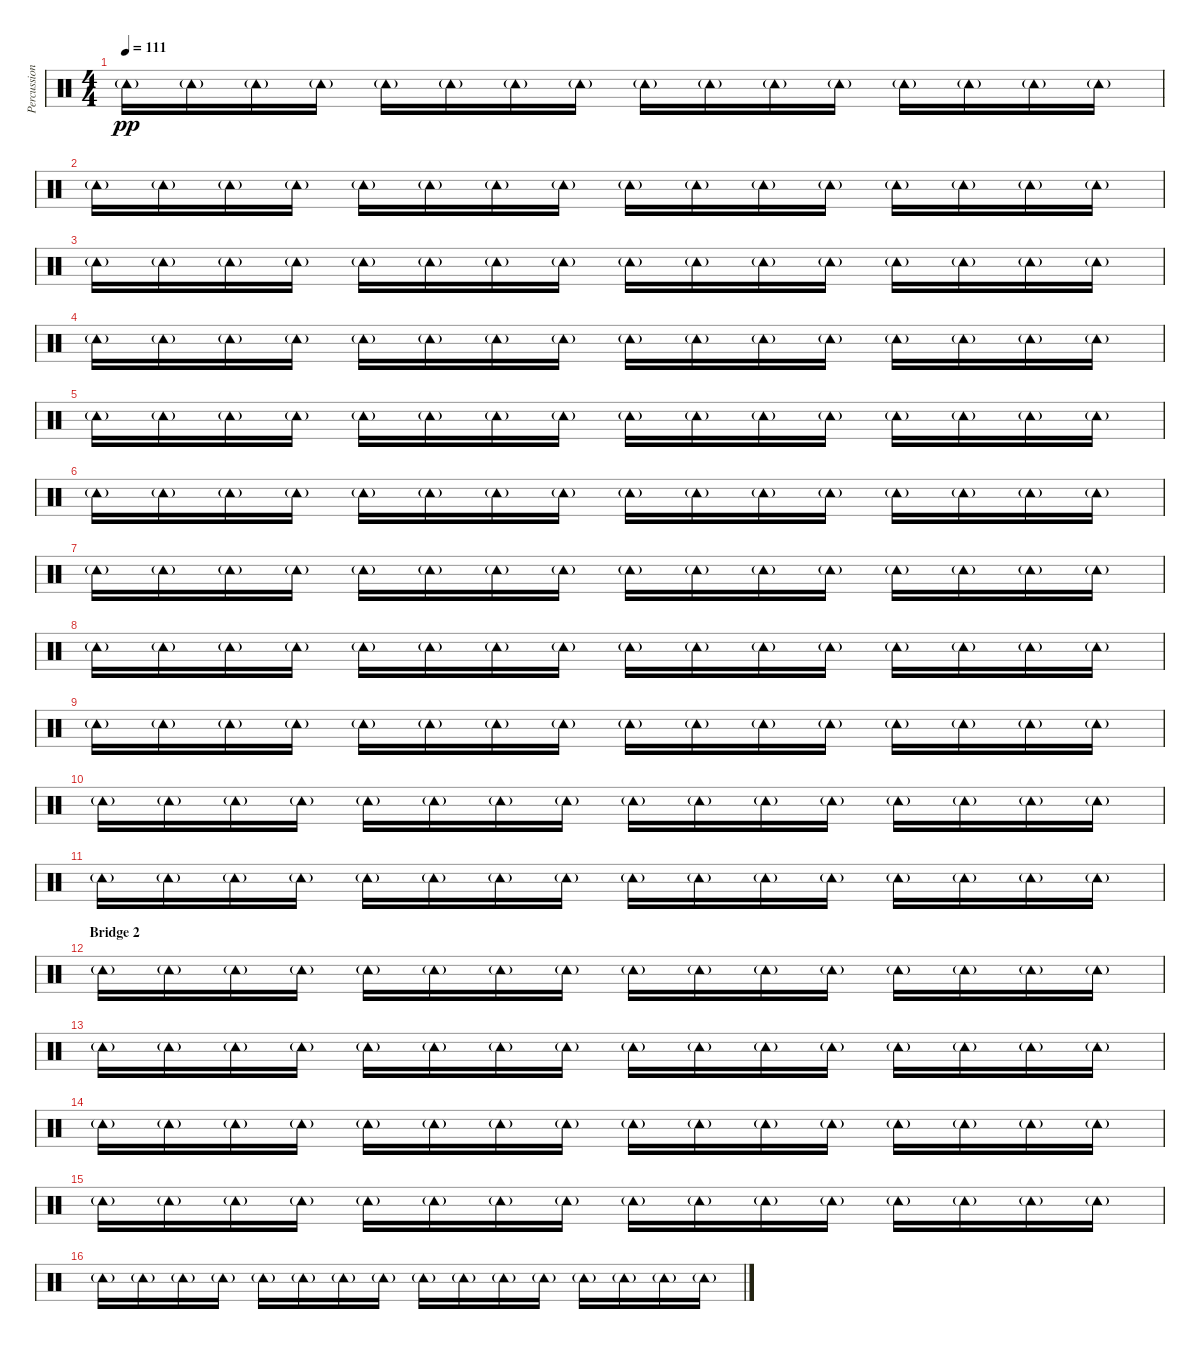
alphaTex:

\track ("Percussion" "Percussion") {instrument percussion}
\staff {score}
\articulation defaults
\ts (4 4)
\tempo 111
\clef neutral
\ks c "Tambourine (hit)"{g}.16{dy pp} "Tambourine (hit)"{g}.16 "Tambourine (hit)"{g}.16 "Tambourine (hit)"{g}.16 "Tambourine (hit)"{g}.16 "Tambourine (hit)"{g}.16 "Tambourine (hit)"{g}.16 "Tambourine (hit)"{g}.16 "Tambourine (hit)"{g}.16 "Tambourine (hit)"{g}.16 "Tambourine (hit)"{g}.16 "Tambourine (hit)"{g}.16 "Tambourine (hit)"{g}.16 "Tambourine (hit)"{g}.16 "Tambourine (hit)"{g}.16 "Tambourine (hit)"{g}.16
|
"Tambourine (hit)"{g}.16 "Tambourine (hit)"{g}.16 "Tambourine (hit)"{g}.16 "Tambourine (hit)"{g}.16 "Tambourine (hit)"{g}.16 "Tambourine (hit)"{g}.16 "Tambourine (hit)"{g}.16 "Tambourine (hit)"{g}.16 "Tambourine (hit)"{g}.16 "Tambourine (hit)"{g}.16 "Tambourine (hit)"{g}.16 "Tambourine (hit)"{g}.16 "Tambourine (hit)"{g}.16 "Tambourine (hit)"{g}.16 "Tambourine (hit)"{g}.16 "Tambourine (hit)"{g}.16 |
"Tambourine (hit)"{g}.16 "Tambourine (hit)"{g}.16 "Tambourine (hit)"{g}.16 "Tambourine (hit)"{g}.16 "Tambourine (hit)"{g}.16 "Tambourine (hit)"{g}.16 "Tambourine (hit)"{g}.16 "Tambourine (hit)"{g}.16 "Tambourine (hit)"{g}.16 "Tambourine (hit)"{g}.16 "Tambourine (hit)"{g}.16 "Tambourine (hit)"{g}.16 "Tambourine (hit)"{g}.16 "Tambourine (hit)"{g}.16 "Tambourine (hit)"{g}.16 "Tambourine (hit)"{g}.16 |
"Tambourine (hit)"{g}.16 "Tambourine (hit)"{g}.16 "Tambourine (hit)"{g}.16 "Tambourine (hit)"{g}.16 "Tambourine (hit)"{g}.16 "Tambourine (hit)"{g}.16 "Tambourine (hit)"{g}.16 "Tambourine (hit)"{g}.16 "Tambourine (hit)"{g}.16 "Tambourine (hit)"{g}.16 "Tambourine (hit)"{g}.16 "Tambourine (hit)"{g}.16 "Tambourine (hit)"{g}.16 "Tambourine (hit)"{g}.16 "Tambourine (hit)"{g}.16 "Tambourine (hit)"{g}.16 |
"Tambourine (hit)"{g}.16 "Tambourine (hit)"{g}.16 "Tambourine (hit)"{g}.16 "Tambourine (hit)"{g}.16 "Tambourine (hit)"{g}.16 "Tambourine (hit)"{g}.16 "Tambourine (hit)"{g}.16 "Tambourine (hit)"{g}.16 "Tambourine (hit)"{g}.16 "Tambourine (hit)"{g}.16 "Tambourine (hit)"{g}.16 "Tambourine (hit)"{g}.16 "Tambourine (hit)"{g}.16 "Tambourine (hit)"{g}.16 "Tambourine (hit)"{g}.16 "Tambourine (hit)"{g}.16 |
"Tambourine (hit)"{g}.16 "Tambourine (hit)"{g}.16 "Tambourine (hit)"{g}.16 "Tambourine (hit)"{g}.16 "Tambourine (hit)"{g}.16 "Tambourine (hit)"{g}.16 "Tambourine (hit)"{g}.16 "Tambourine (hit)"{g}.16 "Tambourine (hit)"{g}.16 "Tambourine (hit)"{g}.16 "Tambourine (hit)"{g}.16 "Tambourine (hit)"{g}.16 "Tambourine (hit)"{g}.16 "Tambourine (hit)"{g}.16 "Tambourine (hit)"{g}.16 "Tambourine (hit)"{g}.16 |
"Tambourine (hit)"{g}.16 "Tambourine (hit)"{g}.16 "Tambourine (hit)"{g}.16 "Tambourine (hit)"{g}.16 "Tambourine (hit)"{g}.16 "Tambourine (hit)"{g}.16 "Tambourine (hit)"{g}.16 "Tambourine (hit)"{g}.16 "Tambourine (hit)"{g}.16 "Tambourine (hit)"{g}.16 "Tambourine (hit)"{g}.16 "Tambourine (hit)"{g}.16 "Tambourine (hit)"{g}.16 "Tambourine (hit)"{g}.16 "Tambourine (hit)"{g}.16 "Tambourine (hit)"{g}.16 |
"Tambourine (hit)"{g}.16 "Tambourine (hit)"{g}.16 "Tambourine (hit)"{g}.16 "Tambourine (hit)"{g}.16 "Tambourine (hit)"{g}.16 "Tambourine (hit)"{g}.16 "Tambourine (hit)"{g}.16 "Tambourine (hit)"{g}.16 "Tambourine (hit)"{g}.16 "Tambourine (hit)"{g}.16 "Tambourine (hit)"{g}.16 "Tambourine (hit)"{g}.16 "Tambourine (hit)"{g}.16 "Tambourine (hit)"{g}.16 "Tambourine (hit)"{g}.16 "Tambourine (hit)"{g}.16 |
"Tambourine (hit)"{g}.16 "Tambourine (hit)"{g}.16 "Tambourine (hit)"{g}.16 "Tambourine (hit)"{g}.16 "Tambourine (hit)"{g}.16 "Tambourine (hit)"{g}.16 "Tambourine (hit)"{g}.16 "Tambourine (hit)"{g}.16 "Tambourine (hit)"{g}.16 "Tambourine (hit)"{g}.16 "Tambourine (hit)"{g}.16 "Tambourine (hit)"{g}.16 "Tambourine (hit)"{g}.16 "Tambourine (hit)"{g}.16 "Tambourine (hit)"{g}.16 "Tambourine (hit)"{g}.16 |
"Tambourine (hit)"{g}.16 "Tambourine (hit)"{g}.16 "Tambourine (hit)"{g}.16 "Tambourine (hit)"{g}.16 "Tambourine (hit)"{g}.16 "Tambourine (hit)"{g}.16 "Tambourine (hit)"{g}.16 "Tambourine (hit)"{g}.16 "Tambourine (hit)"{g}.16 "Tambourine (hit)"{g}.16 "Tambourine (hit)"{g}.16 "Tambourine (hit)"{g}.16 "Tambourine (hit)"{g}.16 "Tambourine (hit)"{g}.16 "Tambourine (hit)"{g}.16 "Tambourine (hit)"{g}.16 |
"Tambourine (hit)"{g}.16 "Tambourine (hit)"{g}.16 "Tambourine (hit)"{g}.16 "Tambourine (hit)"{g}.16 "Tambourine (hit)"{g}.16 "Tambourine (hit)"{g}.16 "Tambourine (hit)"{g}.16 "Tambourine (hit)"{g}.16 "Tambourine (hit)"{g}.16 "Tambourine (hit)"{g}.16 "Tambourine (hit)"{g}.16 "Tambourine (hit)"{g}.16 "Tambourine (hit)"{g}.16 "Tambourine (hit)"{g}.16 "Tambourine (hit)"{g}.16 "Tambourine (hit)"{g}.16 |
\section ("" "Bridge 2")
"Tambourine (hit)"{g}.16 "Tambourine (hit)"{g}.16 "Tambourine (hit)"{g}.16 "Tambourine (hit)"{g}.16 "Tambourine (hit)"{g}.16 "Tambourine (hit)"{g}.16 "Tambourine (hit)"{g}.16 "Tambourine (hit)"{g}.16 "Tambourine (hit)"{g}.16 "Tambourine (hit)"{g}.16 "Tambourine (hit)"{g}.16 "Tambourine (hit)"{g}.16 "Tambourine (hit)"{g}.16 "Tambourine (hit)"{g}.16 "Tambourine (hit)"{g}.16 "Tambourine (hit)"{g}.16 |
"Tambourine (hit)"{g}.16 "Tambourine (hit)"{g}.16 "Tambourine (hit)"{g}.16 "Tambourine (hit)"{g}.16 "Tambourine (hit)"{g}.16 "Tambourine (hit)"{g}.16 "Tambourine (hit)"{g}.16 "Tambourine (hit)"{g}.16 "Tambourine (hit)"{g}.16 "Tambourine (hit)"{g}.16 "Tambourine (hit)"{g}.16 "Tambourine (hit)"{g}.16 "Tambourine (hit)"{g}.16 "Tambourine (hit)"{g}.16 "Tambourine (hit)"{g}.16 "Tambourine (hit)"{g}.16 |
"Tambourine (hit)"{g}.16 "Tambourine (hit)"{g}.16 "Tambourine (hit)"{g}.16 "Tambourine (hit)"{g}.16 "Tambourine (hit)"{g}.16 "Tambourine (hit)"{g}.16 "Tambourine (hit)"{g}.16 "Tambourine (hit)"{g}.16 "Tambourine (hit)"{g}.16 "Tambourine (hit)"{g}.16 "Tambourine (hit)"{g}.16 "Tambourine (hit)"{g}.16 "Tambourine (hit)"{g}.16 "Tambourine (hit)"{g}.16 "Tambourine (hit)"{g}.16 "Tambourine (hit)"{g}.16 |
"Tambourine (hit)"{g}.16 "Tambourine (hit)"{g}.16 "Tambourine (hit)"{g}.16 "Tambourine (hit)"{g}.16 "Tambourine (hit)"{g}.16 "Tambourine (hit)"{g}.16 "Tambourine (hit)"{g}.16 "Tambourine (hit)"{g}.16 "Tambourine (hit)"{g}.16 "Tambourine (hit)"{g}.16 "Tambourine (hit)"{g}.16 "Tambourine (hit)"{g}.16 "Tambourine (hit)"{g}.16 "Tambourine (hit)"{g}.16 "Tambourine (hit)"{g}.16 "Tambourine (hit)"{g}.16 |
"Tambourine (hit)"{g}.16 "Tambourine (hit)"{g}.16 "Tambourine (hit)"{g}.16 "Tambourine (hit)"{g}.16 "Tambourine (hit)"{g}.16 "Tambourine (hit)"{g}.16 "Tambourine (hit)"{g}.16 "Tambourine (hit)"{g}.16 "Tambourine (hit)"{g}.16 "Tambourine (hit)"{g}.16 "Tambourine (hit)"{g}.16 "Tambourine (hit)"{g}.16 "Tambourine (hit)"{g}.16 "Tambourine (hit)"{g}.16 "Tambourine (hit)"{g}.16 "Tambourine (hit)"{g}.16
